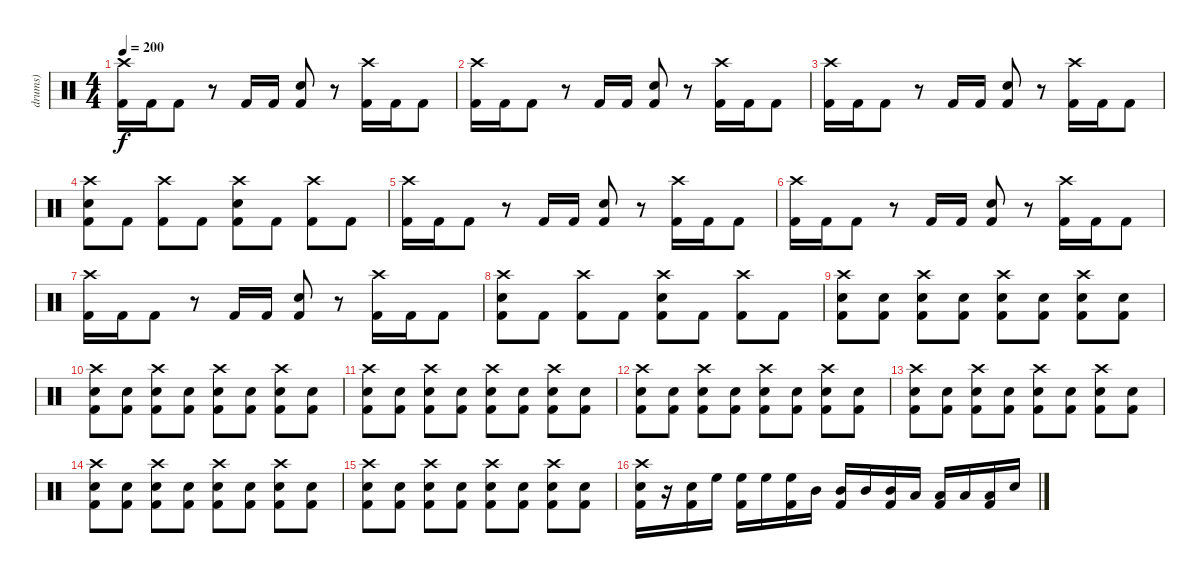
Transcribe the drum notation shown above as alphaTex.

\track ("drums)" "drums)") {instrument percussion}
\staff {score}
\articulation defaults
\ts (4 4)
\tempo 200
\clef neutral
\ks c
("Crash high (hit)" "Kick (hit) 2").16{dy f} "Kick (hit) 2".16 "Kick (hit) 2".8 r.8 "Kick (hit) 2".16 "Kick (hit) 2".16 ("Electric Snare (hit)" "Kick (hit) 2").8 r.8 ("Crash high (hit)" "Kick (hit) 2").16 "Kick (hit) 2".16 "Kick (hit) 2".8 |
("Crash high (hit)" "Kick (hit) 2").16 "Kick (hit) 2".16 "Kick (hit) 2".8 r.8 "Kick (hit) 2".16 "Kick (hit) 2".16 ("Electric Snare (hit)" "Kick (hit) 2").8 r.8 ("Crash high (hit)" "Kick (hit) 2").16 "Kick (hit) 2".16 "Kick (hit) 2".8 |
("Crash high (hit)" "Kick (hit) 2").16 "Kick (hit) 2".16 "Kick (hit) 2".8 r.8 "Kick (hit) 2".16 "Kick (hit) 2".16 ("Electric Snare (hit)" "Kick (hit) 2").8 r.8 ("Crash high (hit)" "Kick (hit) 2").16 "Kick (hit) 2".16 "Kick (hit) 2".8 |
("Crash high (hit)" "Electric Snare (hit)" "Kick (hit) 2").8 "Kick (hit) 2".8 ("Crash high (hit)" "Kick (hit) 2").8 "Kick (hit) 2".8 ("Crash high (hit)" "Electric Snare (hit)" "Kick (hit) 2").8 "Kick (hit) 2".8 ("Crash high (hit)" "Kick (hit) 2").8 "Kick (hit) 2".8 |
("Crash high (hit)" "Kick (hit) 2").16 "Kick (hit) 2".16 "Kick (hit) 2".8 r.8 "Kick (hit) 2".16 "Kick (hit) 2".16 ("Electric Snare (hit)" "Kick (hit) 2").8 r.8 ("Crash high (hit)" "Kick (hit) 2").16 "Kick (hit) 2".16 "Kick (hit) 2".8 |
("Crash high (hit)" "Kick (hit) 2").16 "Kick (hit) 2".16 "Kick (hit) 2".8 r.8 "Kick (hit) 2".16 "Kick (hit) 2".16 ("Electric Snare (hit)" "Kick (hit) 2").8 r.8 ("Crash high (hit)" "Kick (hit) 2").16 "Kick (hit) 2".16 "Kick (hit) 2".8 |
("Crash high (hit)" "Kick (hit) 2").16 "Kick (hit) 2".16 "Kick (hit) 2".8 r.8 "Kick (hit) 2".16 "Kick (hit) 2".16 ("Electric Snare (hit)" "Kick (hit) 2").8 r.8 ("Crash high (hit)" "Kick (hit) 2").16 "Kick (hit) 2".16 "Kick (hit) 2".8 |
("Crash high (hit)" "Electric Snare (hit)" "Kick (hit) 2").8 "Kick (hit) 2".8 ("Crash high (hit)" "Kick (hit) 2").8 "Kick (hit) 2".8 ("Crash high (hit)" "Electric Snare (hit)" "Kick (hit) 2").8 "Kick (hit) 2".8 ("Crash high (hit)" "Kick (hit) 2").8 "Kick (hit) 2".8 |
("Crash high (hit)" "Electric Snare (hit)" "Kick (hit) 2").8 ("Electric Snare (hit)" "Kick (hit) 2").8 ("Crash high (hit)" "Electric Snare (hit)" "Kick (hit) 2").8 ("Electric Snare (hit)" "Kick (hit) 2").8 ("Crash high (hit)" "Electric Snare (hit)" "Kick (hit) 2").8 ("Electric Snare (hit)" "Kick (hit) 2").8 ("Crash high (hit)" "Electric Snare (hit)" "Kick (hit) 2").8 ("Electric Snare (hit)" "Kick (hit) 2").8 |
("Crash high (hit)" "Electric Snare (hit)" "Kick (hit) 2").8 ("Electric Snare (hit)" "Kick (hit) 2").8 ("Crash high (hit)" "Electric Snare (hit)" "Kick (hit) 2").8 ("Electric Snare (hit)" "Kick (hit) 2").8 ("Crash high (hit)" "Electric Snare (hit)" "Kick (hit) 2").8 ("Electric Snare (hit)" "Kick (hit) 2").8 ("Crash high (hit)" "Electric Snare (hit)" "Kick (hit) 2").8 ("Electric Snare (hit)" "Kick (hit) 2").8 |
("Crash high (hit)" "Electric Snare (hit)" "Kick (hit) 2").8 ("Electric Snare (hit)" "Kick (hit) 2").8 ("Crash high (hit)" "Electric Snare (hit)" "Kick (hit) 2").8 ("Electric Snare (hit)" "Kick (hit) 2").8 ("Crash high (hit)" "Electric Snare (hit)" "Kick (hit) 2").8 ("Electric Snare (hit)" "Kick (hit) 2").8 ("Crash high (hit)" "Electric Snare (hit)" "Kick (hit) 2").8 ("Electric Snare (hit)" "Kick (hit) 2").8 |
("Crash high (hit)" "Electric Snare (hit)" "Kick (hit) 2").8 ("Electric Snare (hit)" "Kick (hit) 2").8 ("Crash high (hit)" "Electric Snare (hit)" "Kick (hit) 2").8 ("Electric Snare (hit)" "Kick (hit) 2").8 ("Crash high (hit)" "Electric Snare (hit)" "Kick (hit) 2").8 ("Electric Snare (hit)" "Kick (hit) 2").8 ("Crash high (hit)" "Electric Snare (hit)" "Kick (hit) 2").8 ("Electric Snare (hit)" "Kick (hit) 2").8 |
("Crash high (hit)" "Electric Snare (hit)" "Kick (hit) 2").8 ("Electric Snare (hit)" "Kick (hit) 2").8 ("Crash high (hit)" "Electric Snare (hit)" "Kick (hit) 2").8 ("Electric Snare (hit)" "Kick (hit) 2").8 ("Crash high (hit)" "Electric Snare (hit)" "Kick (hit) 2").8 ("Electric Snare (hit)" "Kick (hit) 2").8 ("Crash high (hit)" "Electric Snare (hit)" "Kick (hit) 2").8 ("Electric Snare (hit)" "Kick (hit) 2").8 |
("Crash high (hit)" "Electric Snare (hit)" "Kick (hit) 2").8 ("Electric Snare (hit)" "Kick (hit) 2").8 ("Crash high (hit)" "Electric Snare (hit)" "Kick (hit) 2").8 ("Electric Snare (hit)" "Kick (hit) 2").8 ("Crash high (hit)" "Electric Snare (hit)" "Kick (hit) 2").8 ("Electric Snare (hit)" "Kick (hit) 2").8 ("Crash high (hit)" "Electric Snare (hit)" "Kick (hit) 2").8 ("Electric Snare (hit)" "Kick (hit) 2").8 |
("Crash high (hit)" "Electric Snare (hit)" "Kick (hit) 2").8 ("Electric Snare (hit)" "Kick (hit) 2").8 ("Crash high (hit)" "Electric Snare (hit)" "Kick (hit) 2").8 ("Electric Snare (hit)" "Kick (hit) 2").8 ("Crash high (hit)" "Electric Snare (hit)" "Kick (hit) 2").8 ("Electric Snare (hit)" "Kick (hit) 2").8 ("Crash high (hit)" "Electric Snare (hit)" "Kick (hit) 2").8 ("Electric Snare (hit)" "Kick (hit) 2").8 |
("Crash high (hit)" "Electric Snare (hit)" "Kick (hit) 2").16 r.16 ("Electric Snare (hit)" "Kick (hit) 2").16 "High Floor Tom (hit)".16 ("High Floor Tom (hit)" "Kick (hit) 2").16 "High Floor Tom (hit)".16 ("High Floor Tom (hit)" "Kick (hit) 2").16 "Mid Tom (hit)".16 ("Mid Tom (hit)" "Kick (hit) 2").16 "Mid Tom (hit)".16 ("Mid Tom (hit)" "Kick (hit) 2").16 "Low Floor Tom (hit)".16 ("Low Floor Tom (hit)" "Kick (hit) 2").16 "Low Floor Tom (hit)".16 ("Low Floor Tom (hit)" "Kick (hit) 2").16 "Electric Snare (hit)".16
